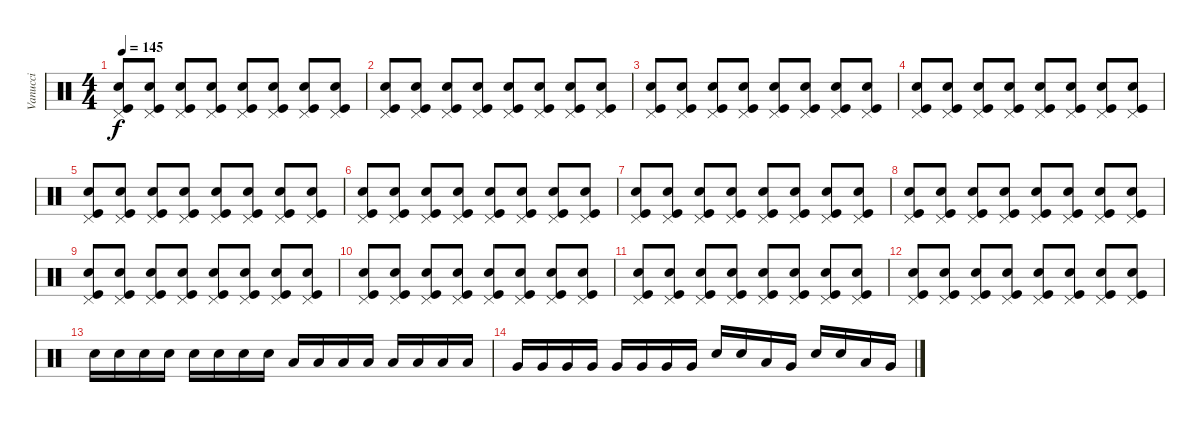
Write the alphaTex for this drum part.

\track ("Vanucci" "Vanucci") {instrument percussion}
\staff {score}
\articulation defaults
\ts (4 4)
\tempo 145
\clef neutral
\ks c
("Pedal Hi-Hat (hit)" "Electric Snare (hit)" "Kick (hit)").8{dy f} ("Pedal Hi-Hat (hit)" "Electric Snare (hit)" "Kick (hit)").8 ("Pedal Hi-Hat (hit)" "Electric Snare (hit)" "Kick (hit)").8 ("Pedal Hi-Hat (hit)" "Electric Snare (hit)" "Kick (hit)").8 ("Pedal Hi-Hat (hit)" "Electric Snare (hit)" "Kick (hit)").8 ("Pedal Hi-Hat (hit)" "Electric Snare (hit)" "Kick (hit)").8 ("Pedal Hi-Hat (hit)" "Electric Snare (hit)" "Kick (hit)").8 ("Pedal Hi-Hat (hit)" "Electric Snare (hit)" "Kick (hit)").8 |
("Pedal Hi-Hat (hit)" "Electric Snare (hit)" "Kick (hit)").8 ("Pedal Hi-Hat (hit)" "Electric Snare (hit)" "Kick (hit)").8 ("Pedal Hi-Hat (hit)" "Electric Snare (hit)" "Kick (hit)").8 ("Pedal Hi-Hat (hit)" "Electric Snare (hit)" "Kick (hit)").8 ("Pedal Hi-Hat (hit)" "Electric Snare (hit)" "Kick (hit)").8 ("Pedal Hi-Hat (hit)" "Electric Snare (hit)" "Kick (hit)").8 ("Pedal Hi-Hat (hit)" "Electric Snare (hit)" "Kick (hit)").8 ("Pedal Hi-Hat (hit)" "Electric Snare (hit)" "Kick (hit)").8 |
("Pedal Hi-Hat (hit)" "Electric Snare (hit)" "Kick (hit)").8 ("Pedal Hi-Hat (hit)" "Electric Snare (hit)" "Kick (hit)").8 ("Pedal Hi-Hat (hit)" "Electric Snare (hit)" "Kick (hit)").8 ("Pedal Hi-Hat (hit)" "Electric Snare (hit)" "Kick (hit)").8 ("Pedal Hi-Hat (hit)" "Electric Snare (hit)" "Kick (hit)").8 ("Pedal Hi-Hat (hit)" "Electric Snare (hit)" "Kick (hit)").8 ("Pedal Hi-Hat (hit)" "Electric Snare (hit)" "Kick (hit)").8 ("Pedal Hi-Hat (hit)" "Electric Snare (hit)" "Kick (hit)").8 |
("Pedal Hi-Hat (hit)" "Electric Snare (hit)" "Kick (hit)").8 ("Pedal Hi-Hat (hit)" "Electric Snare (hit)" "Kick (hit)").8 ("Pedal Hi-Hat (hit)" "Electric Snare (hit)" "Kick (hit)").8 ("Pedal Hi-Hat (hit)" "Electric Snare (hit)" "Kick (hit)").8 ("Pedal Hi-Hat (hit)" "Electric Snare (hit)" "Kick (hit)").8 ("Pedal Hi-Hat (hit)" "Electric Snare (hit)" "Kick (hit)").8 ("Pedal Hi-Hat (hit)" "Electric Snare (hit)" "Kick (hit)").8 ("Pedal Hi-Hat (hit)" "Electric Snare (hit)" "Kick (hit)").8 |
("Pedal Hi-Hat (hit)" "Electric Snare (hit)" "Kick (hit)").8 ("Pedal Hi-Hat (hit)" "Electric Snare (hit)" "Kick (hit)").8 ("Pedal Hi-Hat (hit)" "Electric Snare (hit)" "Kick (hit)").8 ("Pedal Hi-Hat (hit)" "Electric Snare (hit)" "Kick (hit)").8 ("Pedal Hi-Hat (hit)" "Electric Snare (hit)" "Kick (hit)").8 ("Pedal Hi-Hat (hit)" "Electric Snare (hit)" "Kick (hit)").8 ("Pedal Hi-Hat (hit)" "Electric Snare (hit)" "Kick (hit)").8 ("Pedal Hi-Hat (hit)" "Electric Snare (hit)" "Kick (hit)").8 |
("Pedal Hi-Hat (hit)" "Electric Snare (hit)" "Kick (hit)").8 ("Pedal Hi-Hat (hit)" "Electric Snare (hit)" "Kick (hit)").8 ("Pedal Hi-Hat (hit)" "Electric Snare (hit)" "Kick (hit)").8 ("Pedal Hi-Hat (hit)" "Electric Snare (hit)" "Kick (hit)").8 ("Pedal Hi-Hat (hit)" "Electric Snare (hit)" "Kick (hit)").8 ("Pedal Hi-Hat (hit)" "Electric Snare (hit)" "Kick (hit)").8 ("Pedal Hi-Hat (hit)" "Electric Snare (hit)" "Kick (hit)").8 ("Pedal Hi-Hat (hit)" "Electric Snare (hit)" "Kick (hit)").8 |
("Pedal Hi-Hat (hit)" "Electric Snare (hit)" "Kick (hit)").8 ("Pedal Hi-Hat (hit)" "Electric Snare (hit)" "Kick (hit)").8 ("Pedal Hi-Hat (hit)" "Electric Snare (hit)" "Kick (hit)").8 ("Pedal Hi-Hat (hit)" "Electric Snare (hit)" "Kick (hit)").8 ("Pedal Hi-Hat (hit)" "Electric Snare (hit)" "Kick (hit)").8 ("Pedal Hi-Hat (hit)" "Electric Snare (hit)" "Kick (hit)").8 ("Pedal Hi-Hat (hit)" "Electric Snare (hit)" "Kick (hit)").8 ("Pedal Hi-Hat (hit)" "Electric Snare (hit)" "Kick (hit)").8 |
("Pedal Hi-Hat (hit)" "Electric Snare (hit)" "Kick (hit)").8 ("Pedal Hi-Hat (hit)" "Electric Snare (hit)" "Kick (hit)").8 ("Pedal Hi-Hat (hit)" "Electric Snare (hit)" "Kick (hit)").8 ("Pedal Hi-Hat (hit)" "Electric Snare (hit)" "Kick (hit)").8 ("Pedal Hi-Hat (hit)" "Electric Snare (hit)" "Kick (hit)").8 ("Pedal Hi-Hat (hit)" "Electric Snare (hit)" "Kick (hit)").8 ("Pedal Hi-Hat (hit)" "Electric Snare (hit)" "Kick (hit)").8 ("Pedal Hi-Hat (hit)" "Electric Snare (hit)" "Kick (hit)").8 |
("Pedal Hi-Hat (hit)" "Electric Snare (hit)" "Kick (hit)").8 ("Pedal Hi-Hat (hit)" "Electric Snare (hit)" "Kick (hit)").8 ("Pedal Hi-Hat (hit)" "Electric Snare (hit)" "Kick (hit)").8 ("Pedal Hi-Hat (hit)" "Electric Snare (hit)" "Kick (hit)").8 ("Pedal Hi-Hat (hit)" "Electric Snare (hit)" "Kick (hit)").8 ("Pedal Hi-Hat (hit)" "Electric Snare (hit)" "Kick (hit)").8 ("Pedal Hi-Hat (hit)" "Electric Snare (hit)" "Kick (hit)").8 ("Pedal Hi-Hat (hit)" "Electric Snare (hit)" "Kick (hit)").8 |
("Pedal Hi-Hat (hit)" "Electric Snare (hit)" "Kick (hit)").8 ("Pedal Hi-Hat (hit)" "Electric Snare (hit)" "Kick (hit)").8 ("Pedal Hi-Hat (hit)" "Electric Snare (hit)" "Kick (hit)").8 ("Pedal Hi-Hat (hit)" "Electric Snare (hit)" "Kick (hit)").8 ("Pedal Hi-Hat (hit)" "Electric Snare (hit)" "Kick (hit)").8 ("Pedal Hi-Hat (hit)" "Electric Snare (hit)" "Kick (hit)").8 ("Pedal Hi-Hat (hit)" "Electric Snare (hit)" "Kick (hit)").8 ("Pedal Hi-Hat (hit)" "Electric Snare (hit)" "Kick (hit)").8 |
("Pedal Hi-Hat (hit)" "Electric Snare (hit)" "Kick (hit)").8 ("Pedal Hi-Hat (hit)" "Electric Snare (hit)" "Kick (hit)").8 ("Pedal Hi-Hat (hit)" "Electric Snare (hit)" "Kick (hit)").8 ("Pedal Hi-Hat (hit)" "Electric Snare (hit)" "Kick (hit)").8 ("Pedal Hi-Hat (hit)" "Electric Snare (hit)" "Kick (hit)").8 ("Pedal Hi-Hat (hit)" "Electric Snare (hit)" "Kick (hit)").8 ("Pedal Hi-Hat (hit)" "Electric Snare (hit)" "Kick (hit)").8 ("Pedal Hi-Hat (hit)" "Electric Snare (hit)" "Kick (hit)").8 |
("Pedal Hi-Hat (hit)" "Electric Snare (hit)" "Kick (hit)").8 ("Pedal Hi-Hat (hit)" "Electric Snare (hit)" "Kick (hit)").8 ("Pedal Hi-Hat (hit)" "Electric Snare (hit)" "Kick (hit)").8 ("Pedal Hi-Hat (hit)" "Electric Snare (hit)" "Kick (hit)").8 ("Pedal Hi-Hat (hit)" "Electric Snare (hit)" "Kick (hit)").8 ("Pedal Hi-Hat (hit)" "Electric Snare (hit)" "Kick (hit)").8 ("Pedal Hi-Hat (hit)" "Electric Snare (hit)" "Kick (hit)").8 ("Pedal Hi-Hat (hit)" "Electric Snare (hit)" "Kick (hit)").8 |
"Electric Snare (hit)".16 "Electric Snare (hit)".16 "Electric Snare (hit)".16 "Electric Snare (hit)".16 "Electric Snare (hit)".16 "Electric Snare (hit)".16 "Electric Snare (hit)".16 "Electric Snare (hit)".16 "Low Tom (hit)".16 "Low Tom (hit)".16 "Low Tom (hit)".16 "Low Tom (hit)".16 "Low Tom (hit)".16 "Low Tom (hit)".16 "Low Tom (hit)".16 "Low Tom (hit)".16 |
"Very Low Tom (hit)".16 "Very Low Tom (hit)".16 "Very Low Tom (hit)".16 "Very Low Tom (hit)".16 "Very Low Tom (hit)".16 "Very Low Tom (hit)".16 "Very Low Tom (hit)".16 "Very Low Tom (hit)".16 "Electric Snare (hit)".16 "Electric Snare (hit)".16 "Low Tom (hit)".16 "Very Low Tom (hit)".16 "Electric Snare (hit)".16 "Electric Snare (hit)".16 "Low Tom (hit)".16 "Very Low Tom (hit)".16
